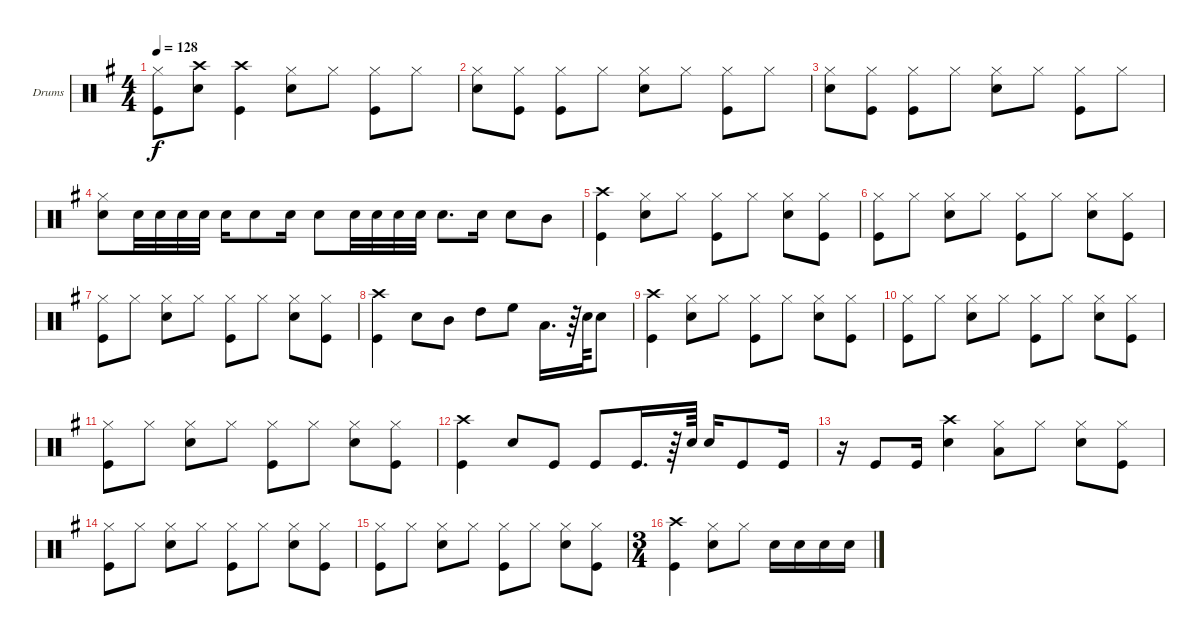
\defaultSystemsLayout 4
\bracketExtendMode groupsimilarinstruments
\firstSystemTrackNameOrientation horizontal
\otherSystemsTrackNameOrientation horizontal
\track ("Drumkit" "Drums") {instrument percussion}
\staff {score}
\articulation defaults
\ts (4 4)
\tempo 128
\clef neutral
\ks g
("Kick (hit)" "Hi-Hat (closed)").8{dy f} ("Crash high (hit)" "Snare (hit) 2").8 ("Kick (hit)" "Crash high (hit)").4 ("Hi-Hat (closed)" "Snare (hit) 2").8 "Hi-Hat (closed)".8 ("Kick (hit)" "Hi-Hat (closed)").8 "Hi-Hat (closed)".8 |
("Hi-Hat (closed)" "Snare (hit) 2").8 ("Kick (hit)" "Hi-Hat (closed)").8 ("Hi-Hat (closed)" "Kick (hit)").8 "Hi-Hat (closed)".8 ("Hi-Hat (closed)" "Snare (hit) 2").8 "Hi-Hat (closed)".8 ("Hi-Hat (closed)" "Kick (hit)").8 "Hi-Hat (closed)".8 |
("Hi-Hat (closed)" "Snare (hit) 2").8 ("Kick (hit)" "Hi-Hat (closed)").8 ("Hi-Hat (closed)" "Kick (hit)").8 "Hi-Hat (closed)".8 ("Hi-Hat (closed)" "Snare (hit) 2").8 "Hi-Hat (closed)".8 ("Hi-Hat (closed)" "Kick (hit)").8 "Hi-Hat (closed)".8 |
("Snare (hit) 2" "Hi-Hat (closed)").8 "Snare (hit) 2".32 "Snare (hit) 2".32 "Snare (hit) 2".32 "Snare (hit) 2".32 "Snare (hit) 2".16 "Snare (hit) 2".8 "Snare (hit) 2".16 "Snare (hit) 2".8 "Snare (hit) 2".32 "Snare (hit) 2".32 "Snare (hit) 2".32 "Snare (hit) 2".32 "Snare (hit) 2".8{d} "Snare (hit) 2".16 "Snare (hit) 2".8 "Mid Tom (hit)".8 |
("Kick (hit)" "Crash high (hit)").4 ("Snare (hit) 2" "Hi-Hat (closed)").8 "Hi-Hat (closed)".8 ("Hi-Hat (closed)" "Kick (hit)").8 "Hi-Hat (closed)".8 ("Snare (hit) 2" "Hi-Hat (closed)").8 ("Kick (hit)" "Hi-Hat (closed)").8 |
("Hi-Hat (closed)" "Kick (hit)").8 "Hi-Hat (closed)".8 ("Snare (hit) 2" "Hi-Hat (closed)").8 "Hi-Hat (closed)".8 ("Hi-Hat (closed)" "Kick (hit)").8 "Hi-Hat (closed)".8 ("Snare (hit) 2" "Hi-Hat (closed)").8 ("Kick (hit)" "Hi-Hat (closed)").8 |
("Hi-Hat (closed)" "Kick (hit)").8 "Hi-Hat (closed)".8 ("Snare (hit) 2" "Hi-Hat (closed)").8 "Hi-Hat (closed)".8 ("Hi-Hat (closed)" "Kick (hit)").8 "Hi-Hat (closed)".8 ("Snare (hit) 2" "Hi-Hat (closed)").8 ("Kick (hit)" "Hi-Hat (closed)").8 |
("Kick (hit)" "Crash high (hit)").4 "Snare (hit) 2".8 "Mid Tom (hit)".8 "High Tom (hit)".8 "High Floor Tom (hit)".8 "Low Tom (hit)".16{d} r.64 "Snare (hit) 2".64 "Snare (hit) 2".8 |
("Kick (hit)" "Crash high (hit)").4 ("Snare (hit) 2" "Hi-Hat (closed)").8 "Hi-Hat (closed)".8 ("Hi-Hat (closed)" "Kick (hit)").8 "Hi-Hat (closed)".8 ("Snare (hit) 2" "Hi-Hat (closed)").8 ("Kick (hit)" "Hi-Hat (closed)").8 |
("Hi-Hat (closed)" "Kick (hit)").8 "Hi-Hat (closed)".8 ("Snare (hit) 2" "Hi-Hat (closed)").8 "Hi-Hat (closed)".8 ("Hi-Hat (closed)" "Kick (hit)").8 "Hi-Hat (closed)".8 ("Snare (hit) 2" "Hi-Hat (closed)").8 ("Kick (hit)" "Hi-Hat (closed)").8 |
("Hi-Hat (closed)" "Kick (hit)").8 "Hi-Hat (closed)".8 ("Snare (hit) 2" "Hi-Hat (closed)").8 "Hi-Hat (closed)".8 ("Hi-Hat (closed)" "Kick (hit)").8 "Hi-Hat (closed)".8 ("Snare (hit) 2" "Hi-Hat (closed)").8 ("Kick (hit)" "Hi-Hat (closed)").8 |
("Kick (hit)" "Crash high (hit)").4 "Snare (hit) 2".8 "Kick (hit)".8 "Kick (hit)".8 "Kick (hit)".16{d} r.64 "Snare (hit) 2".64 "Snare (hit) 2".16 "Kick (hit)".8 "Kick (hit)".16 |
r.16 "Kick (hit)".8 "Kick (hit)".16 ("Snare (hit) 2" "Crash high (hit)").4 ("Low Tom (hit)" "Hi-Hat (closed)").8 "Hi-Hat (closed)".8 ("Snare (hit) 2" "Hi-Hat (closed)").8 ("Kick (hit)" "Hi-Hat (closed)").8 |
("Hi-Hat (closed)" "Kick (hit)").8 "Hi-Hat (closed)".8 ("Snare (hit) 2" "Hi-Hat (closed)").8 "Hi-Hat (closed)".8 ("Hi-Hat (closed)" "Kick (hit)").8 "Hi-Hat (closed)".8 ("Snare (hit) 2" "Hi-Hat (closed)").8 ("Kick (hit)" "Hi-Hat (closed)").8 |
("Hi-Hat (closed)" "Kick (hit)").8 "Hi-Hat (closed)".8 ("Snare (hit) 2" "Hi-Hat (closed)").8 "Hi-Hat (closed)".8 ("Hi-Hat (closed)" "Kick (hit)").8 "Hi-Hat (closed)".8 ("Snare (hit) 2" "Hi-Hat (closed)").8 ("Kick (hit)" "Hi-Hat (closed)").8 |
\ts (3 4)
("Kick (hit)" "Crash high (hit)").4 ("Snare (hit) 2" "Hi-Hat (closed)").8 "Hi-Hat (closed)".8 "Snare (hit) 2".16 "Snare (hit) 2".16 "Snare (hit) 2".16 "Snare (hit) 2".16
